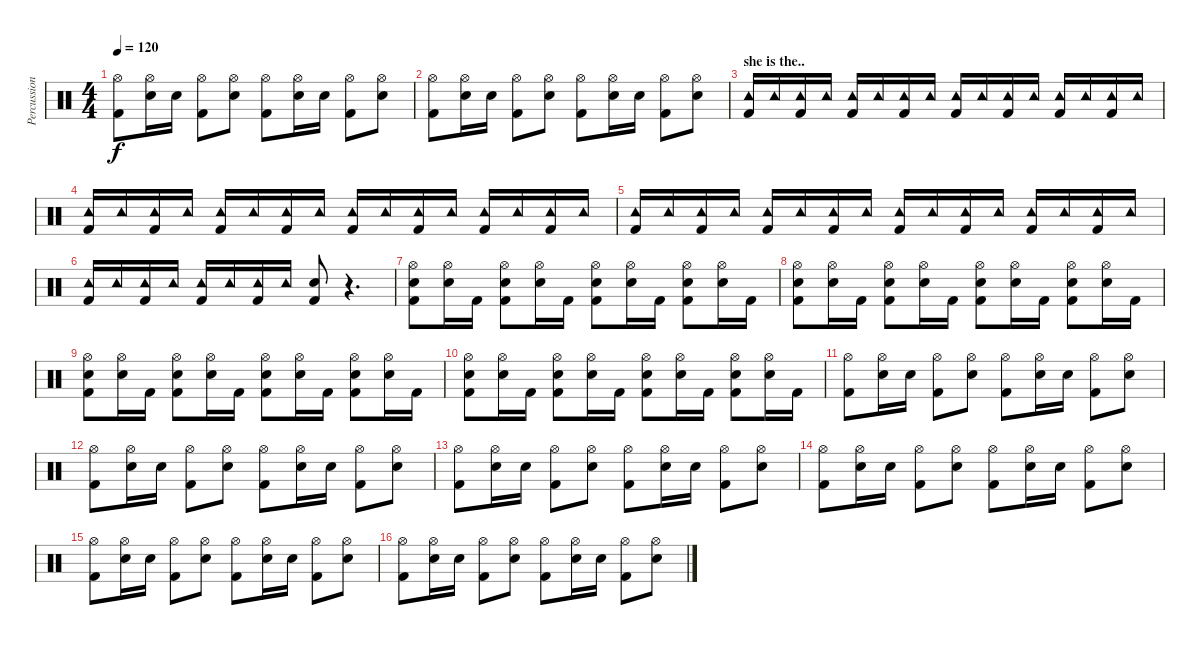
\track ("Percussions" "Percussion") {instrument percussion}
\staff {score}
\articulation defaults
\ts (4 4)
\tempo 120
\clef neutral
\ks c
("Kick (hit) 2" "Hi-Hat (open)").8{dy f} ("Hi-Hat (open)" "Snare (hit) 2").16 "Snare (hit) 2".16 ("Kick (hit) 2" "Hi-Hat (open)").8 ("Hi-Hat (open)" "Snare (hit) 2").8 ("Kick (hit) 2" "Hi-Hat (open)").8 ("Hi-Hat (open)" "Snare (hit) 2").16 "Snare (hit) 2".16 ("Kick (hit) 2" "Hi-Hat (open)").8 ("Hi-Hat (open)" "Snare (hit) 2").8 |
("Kick (hit) 2" "Hi-Hat (open)").8 ("Hi-Hat (open)" "Snare (hit) 2").16 "Snare (hit) 2".16 ("Kick (hit) 2" "Hi-Hat (open)").8 ("Hi-Hat (open)" "Snare (hit) 2").8 ("Kick (hit) 2" "Hi-Hat (open)").8 ("Hi-Hat (open)" "Snare (hit) 2").16 "Snare (hit) 2".16 ("Kick (hit) 2" "Hi-Hat (open)").8 ("Hi-Hat (open)" "Snare (hit) 2").8 |
\section ("" "she is the..")
("Kick (hit) 2" "Tambourine (hit)").16 "Tambourine (hit)".16 ("Kick (hit) 2" "Tambourine (hit)").16 "Tambourine (hit)".16 ("Kick (hit) 2" "Tambourine (hit)").16 "Tambourine (hit)".16 ("Kick (hit) 2" "Tambourine (hit)").16 "Tambourine (hit)".16 ("Kick (hit) 2" "Tambourine (hit)").16 "Tambourine (hit)".16 ("Kick (hit) 2" "Tambourine (hit)").16 "Tambourine (hit)".16 ("Kick (hit) 2" "Tambourine (hit)").16 "Tambourine (hit)".16 ("Kick (hit) 2" "Tambourine (hit)").16 "Tambourine (hit)".16 |
("Kick (hit) 2" "Tambourine (hit)").16 "Tambourine (hit)".16 ("Kick (hit) 2" "Tambourine (hit)").16 "Tambourine (hit)".16 ("Kick (hit) 2" "Tambourine (hit)").16 "Tambourine (hit)".16 ("Kick (hit) 2" "Tambourine (hit)").16 "Tambourine (hit)".16 ("Kick (hit) 2" "Tambourine (hit)").16 "Tambourine (hit)".16 ("Kick (hit) 2" "Tambourine (hit)").16 "Tambourine (hit)".16 ("Kick (hit) 2" "Tambourine (hit)").16 "Tambourine (hit)".16 ("Kick (hit) 2" "Tambourine (hit)").16 "Tambourine (hit)".16 |
("Kick (hit) 2" "Tambourine (hit)").16 "Tambourine (hit)".16 ("Kick (hit) 2" "Tambourine (hit)").16 "Tambourine (hit)".16 ("Kick (hit) 2" "Tambourine (hit)").16 "Tambourine (hit)".16 ("Kick (hit) 2" "Tambourine (hit)").16 "Tambourine (hit)".16 ("Kick (hit) 2" "Tambourine (hit)").16 "Tambourine (hit)".16 ("Kick (hit) 2" "Tambourine (hit)").16 "Tambourine (hit)".16 ("Kick (hit) 2" "Tambourine (hit)").16 "Tambourine (hit)".16 ("Kick (hit) 2" "Tambourine (hit)").16 "Tambourine (hit)".16 |
("Kick (hit) 2" "Tambourine (hit)").16 "Tambourine (hit)".16 ("Kick (hit) 2" "Tambourine (hit)").16 "Tambourine (hit)".16 ("Kick (hit) 2" "Tambourine (hit)").16 "Tambourine (hit)".16 ("Kick (hit) 2" "Tambourine (hit)").16 "Tambourine (hit)".16 ("Kick (hit) 2" "Snare (hit) 2").8 r.4{d} |
("Kick (hit) 2" "Hi-Hat (open)" "Snare (hit) 2").8 ("Hi-Hat (open)" "Snare (hit) 2").16 "Kick (hit) 2".16 ("Kick (hit) 2" "Hi-Hat (open)" "Snare (hit) 2").8 ("Hi-Hat (open)" "Snare (hit) 2").16 "Kick (hit) 2".16 ("Kick (hit) 2" "Hi-Hat (open)" "Snare (hit) 2").8 ("Hi-Hat (open)" "Snare (hit) 2").16 "Kick (hit) 2".16 ("Kick (hit) 2" "Hi-Hat (open)" "Snare (hit) 2").8 ("Hi-Hat (open)" "Snare (hit) 2").16 "Kick (hit) 2".16 |
("Kick (hit) 2" "Hi-Hat (open)" "Snare (hit) 2").8 ("Hi-Hat (open)" "Snare (hit) 2").16 "Kick (hit) 2".16 ("Kick (hit) 2" "Hi-Hat (open)" "Snare (hit) 2").8 ("Hi-Hat (open)" "Snare (hit) 2").16 "Kick (hit) 2".16 ("Kick (hit) 2" "Hi-Hat (open)" "Snare (hit) 2").8 ("Hi-Hat (open)" "Snare (hit) 2").16 "Kick (hit) 2".16 ("Kick (hit) 2" "Hi-Hat (open)" "Snare (hit) 2").8 ("Hi-Hat (open)" "Snare (hit) 2").16 "Kick (hit) 2".16 |
("Kick (hit) 2" "Hi-Hat (open)" "Snare (hit) 2").8 ("Hi-Hat (open)" "Snare (hit) 2").16 "Kick (hit) 2".16 ("Kick (hit) 2" "Hi-Hat (open)" "Snare (hit) 2").8 ("Hi-Hat (open)" "Snare (hit) 2").16 "Kick (hit) 2".16 ("Kick (hit) 2" "Hi-Hat (open)" "Snare (hit) 2").8 ("Hi-Hat (open)" "Snare (hit) 2").16 "Kick (hit) 2".16 ("Kick (hit) 2" "Hi-Hat (open)" "Snare (hit) 2").8 ("Hi-Hat (open)" "Snare (hit) 2").16 "Kick (hit) 2".16 |
("Kick (hit) 2" "Hi-Hat (open)" "Snare (hit) 2").8 ("Hi-Hat (open)" "Snare (hit) 2").16 "Kick (hit) 2".16 ("Kick (hit) 2" "Hi-Hat (open)" "Snare (hit) 2").8 ("Hi-Hat (open)" "Snare (hit) 2").16 "Kick (hit) 2".16 ("Kick (hit) 2" "Hi-Hat (open)" "Snare (hit) 2").8 ("Hi-Hat (open)" "Snare (hit) 2").16 "Kick (hit) 2".16 ("Kick (hit) 2" "Hi-Hat (open)" "Snare (hit) 2").8 ("Hi-Hat (open)" "Snare (hit) 2").16 "Kick (hit) 2".16 |
("Kick (hit) 2" "Hi-Hat (open)").8 ("Hi-Hat (open)" "Snare (hit) 2").16 "Snare (hit) 2".16 ("Kick (hit) 2" "Hi-Hat (open)").8 ("Hi-Hat (open)" "Snare (hit) 2").8 ("Kick (hit) 2" "Hi-Hat (open)").8 ("Hi-Hat (open)" "Snare (hit) 2").16 "Snare (hit) 2".16 ("Kick (hit) 2" "Hi-Hat (open)").8 ("Hi-Hat (open)" "Snare (hit) 2").8 |
("Kick (hit) 2" "Hi-Hat (open)").8 ("Hi-Hat (open)" "Snare (hit) 2").16 "Snare (hit) 2".16 ("Kick (hit) 2" "Hi-Hat (open)").8 ("Hi-Hat (open)" "Snare (hit) 2").8 ("Kick (hit) 2" "Hi-Hat (open)").8 ("Hi-Hat (open)" "Snare (hit) 2").16 "Snare (hit) 2".16 ("Kick (hit) 2" "Hi-Hat (open)").8 ("Hi-Hat (open)" "Snare (hit) 2").8 |
("Kick (hit) 2" "Hi-Hat (open)").8 ("Hi-Hat (open)" "Snare (hit) 2").16 "Snare (hit) 2".16 ("Kick (hit) 2" "Hi-Hat (open)").8 ("Hi-Hat (open)" "Snare (hit) 2").8 ("Kick (hit) 2" "Hi-Hat (open)").8 ("Hi-Hat (open)" "Snare (hit) 2").16 "Snare (hit) 2".16 ("Kick (hit) 2" "Hi-Hat (open)").8 ("Hi-Hat (open)" "Snare (hit) 2").8 |
("Kick (hit) 2" "Hi-Hat (open)").8 ("Hi-Hat (open)" "Snare (hit) 2").16 "Snare (hit) 2".16 ("Kick (hit) 2" "Hi-Hat (open)").8 ("Hi-Hat (open)" "Snare (hit) 2").8 ("Kick (hit) 2" "Hi-Hat (open)").8 ("Hi-Hat (open)" "Snare (hit) 2").16 "Snare (hit) 2".16 ("Kick (hit) 2" "Hi-Hat (open)").8 ("Hi-Hat (open)" "Snare (hit) 2").8 |
("Kick (hit) 2" "Hi-Hat (open)").8 ("Hi-Hat (open)" "Snare (hit) 2").16 "Snare (hit) 2".16 ("Kick (hit) 2" "Hi-Hat (open)").8 ("Hi-Hat (open)" "Snare (hit) 2").8 ("Kick (hit) 2" "Hi-Hat (open)").8 ("Hi-Hat (open)" "Snare (hit) 2").16 "Snare (hit) 2".16 ("Kick (hit) 2" "Hi-Hat (open)").8 ("Hi-Hat (open)" "Snare (hit) 2").8 |
("Kick (hit) 2" "Hi-Hat (open)").8 ("Hi-Hat (open)" "Snare (hit) 2").16 "Snare (hit) 2".16 ("Kick (hit) 2" "Hi-Hat (open)").8 ("Hi-Hat (open)" "Snare (hit) 2").8 ("Kick (hit) 2" "Hi-Hat (open)").8 ("Hi-Hat (open)" "Snare (hit) 2").16 "Snare (hit) 2".16 ("Kick (hit) 2" "Hi-Hat (open)").8 ("Hi-Hat (open)" "Snare (hit) 2").8
